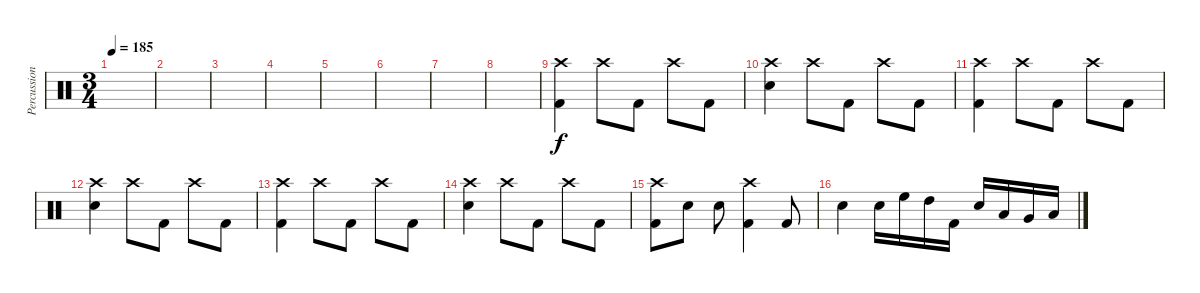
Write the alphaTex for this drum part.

\track ("Percussion" "Percussion") {instrument percussion}
\staff {score}
\articulation defaults
\ts (3 4)
\tempo 185
\clef neutral
\ks c
|
|
|
|
|
|
|
|
("Crash high (hit)" "Kick (hit) 2").4 "Crash high (hit)".8 "Kick (hit) 2".8 "Crash high (hit)".8 "Kick (hit) 2".8 |
("Crash high (hit)" "Electric Snare (hit)").4 "Crash high (hit)".8 "Kick (hit) 2".8 "Crash high (hit)".8 "Kick (hit) 2".8 |
("Crash high (hit)" "Kick (hit) 2").4 "Crash high (hit)".8 "Kick (hit) 2".8 "Crash high (hit)".8 "Kick (hit) 2".8 |
("Crash high (hit)" "Electric Snare (hit)").4 "Crash high (hit)".8 "Kick (hit) 2".8 "Crash high (hit)".8 "Kick (hit) 2".8 |
("Crash high (hit)" "Kick (hit) 2").4 "Crash high (hit)".8 "Kick (hit) 2".8 "Crash high (hit)".8 "Kick (hit) 2".8 |
("Crash high (hit)" "Electric Snare (hit)").4 "Crash high (hit)".8 "Kick (hit) 2".8 "Crash high (hit)".8 "Kick (hit) 2".8 |
("Kick (hit) 2" "Crash high (hit)").8 "Electric Snare (hit)".8 "Electric Snare (hit)".8 ("Crash high (hit)" "Kick (hit) 2").4 "Kick (hit) 2".8 |
"Electric Snare (hit)".4 "Electric Snare (hit)".16 "High Floor Tom (hit)".16 "High Tom (hit)".16 "Kick (hit) 2".16 "Electric Snare (hit)".16 "Low Tom (hit)".16 "Very Low Tom (hit)".16 "Low Floor Tom (hit)".16
